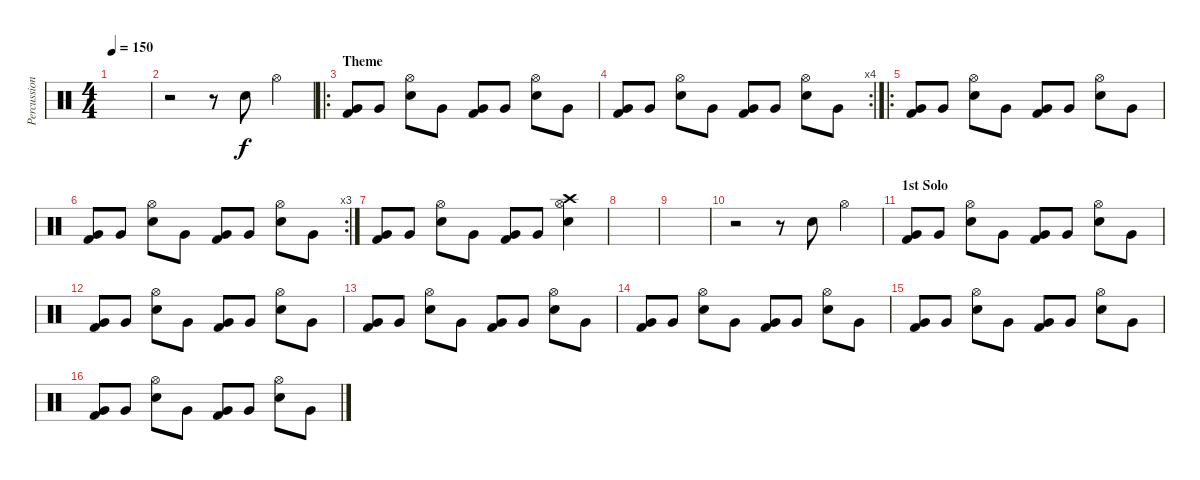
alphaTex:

\track ("Percussion" "Percussion") {instrument percussion}
\staff {score}
\articulation defaults
\ts (4 4)
\tempo 150
\clef neutral
\ks c
|
r.2 r.8 "Snare (hit) 2".8 "Hi-Hat (open)".4 |
\ro
\section ("" "Theme")
("Very Low Tom (hit)" "Kick (hit) 2").8 "Very Low Tom (hit)".8 ("Hi-Hat (open)" "Snare (hit) 2").8 "Very Low Tom (hit)".8 ("Very Low Tom (hit)" "Kick (hit) 2").8 "Very Low Tom (hit)".8 ("Hi-Hat (open)" "Snare (hit) 2").8 "Very Low Tom (hit)".8 |
\rc 4
("Very Low Tom (hit)" "Kick (hit) 2").8 "Very Low Tom (hit)".8 ("Hi-Hat (open)" "Snare (hit) 2").8 "Very Low Tom (hit)".8 ("Very Low Tom (hit)" "Kick (hit) 2").8 "Very Low Tom (hit)".8 ("Hi-Hat (open)" "Snare (hit) 2").8 "Very Low Tom (hit)".8 |
\ro
("Very Low Tom (hit)" "Kick (hit) 2").8 "Very Low Tom (hit)".8 ("Hi-Hat (open)" "Snare (hit) 2").8 "Very Low Tom (hit)".8 ("Very Low Tom (hit)" "Kick (hit) 2").8 "Very Low Tom (hit)".8 ("Hi-Hat (open)" "Snare (hit) 2").8 "Very Low Tom (hit)".8 |
\rc 3
("Very Low Tom (hit)" "Kick (hit) 2").8 "Very Low Tom (hit)".8 ("Hi-Hat (open)" "Snare (hit) 2").8 "Very Low Tom (hit)".8 ("Very Low Tom (hit)" "Kick (hit) 2").8 "Very Low Tom (hit)".8 ("Hi-Hat (open)" "Snare (hit) 2").8 "Very Low Tom (hit)".8 |
("Very Low Tom (hit)" "Kick (hit) 2").8 "Very Low Tom (hit)".8 ("Hi-Hat (open)" "Snare (hit) 2").8 "Very Low Tom (hit)".8 ("Very Low Tom (hit)" "Kick (hit) 2").8 "Very Low Tom (hit)".8 ("Crash high (hit)" "Hi-Hat (open)" "Snare (hit) 2").4 |
|
|
r.2 r.8 "Snare (hit) 2".8 "Hi-Hat (open)".4 |
\section ("" "1st Solo")
("Very Low Tom (hit)" "Kick (hit) 2").8 "Very Low Tom (hit)".8 ("Hi-Hat (open)" "Snare (hit) 2").8 "Very Low Tom (hit)".8 ("Very Low Tom (hit)" "Kick (hit) 2").8 "Very Low Tom (hit)".8 ("Hi-Hat (open)" "Snare (hit) 2").8 "Very Low Tom (hit)".8 |
("Very Low Tom (hit)" "Kick (hit) 2").8 "Very Low Tom (hit)".8 ("Hi-Hat (open)" "Snare (hit) 2").8 "Very Low Tom (hit)".8 ("Very Low Tom (hit)" "Kick (hit) 2").8 "Very Low Tom (hit)".8 ("Hi-Hat (open)" "Snare (hit) 2").8 "Very Low Tom (hit)".8 |
("Very Low Tom (hit)" "Kick (hit) 2").8 "Very Low Tom (hit)".8 ("Hi-Hat (open)" "Snare (hit) 2").8 "Very Low Tom (hit)".8 ("Very Low Tom (hit)" "Kick (hit) 2").8 "Very Low Tom (hit)".8 ("Hi-Hat (open)" "Snare (hit) 2").8 "Very Low Tom (hit)".8 |
("Very Low Tom (hit)" "Kick (hit) 2").8 "Very Low Tom (hit)".8 ("Hi-Hat (open)" "Snare (hit) 2").8 "Very Low Tom (hit)".8 ("Very Low Tom (hit)" "Kick (hit) 2").8 "Very Low Tom (hit)".8 ("Hi-Hat (open)" "Snare (hit) 2").8 "Very Low Tom (hit)".8 |
("Very Low Tom (hit)" "Kick (hit) 2").8 "Very Low Tom (hit)".8 ("Hi-Hat (open)" "Snare (hit) 2").8 "Very Low Tom (hit)".8 ("Very Low Tom (hit)" "Kick (hit) 2").8 "Very Low Tom (hit)".8 ("Hi-Hat (open)" "Snare (hit) 2").8 "Very Low Tom (hit)".8 |
("Very Low Tom (hit)" "Kick (hit) 2").8 "Very Low Tom (hit)".8 ("Hi-Hat (open)" "Snare (hit) 2").8 "Very Low Tom (hit)".8 ("Very Low Tom (hit)" "Kick (hit) 2").8 "Very Low Tom (hit)".8 ("Hi-Hat (open)" "Snare (hit) 2").8 "Very Low Tom (hit)".8
